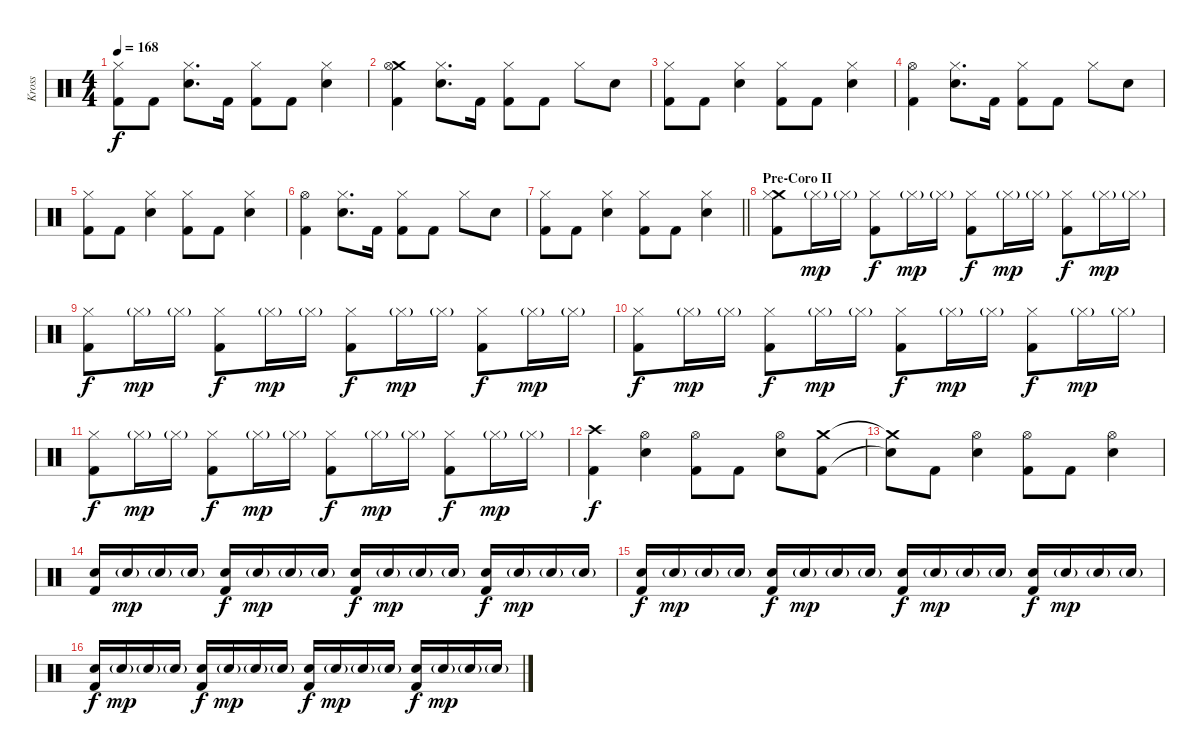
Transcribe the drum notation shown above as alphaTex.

\track ("Kross" "Kross") {instrument percussion}
\staff
\articulation defaults
\ts (4 4)
\tempo 168
\clef neutral
\ks c
("Hi-Hat (closed)" "Kick (hit) 2").8{dy f} "Kick (hit) 2".8 ("Hi-Hat (closed)" "Electric Snare (hit)").8{d} "Kick (hit) 2".16 ("Hi-Hat (closed)" "Kick (hit) 2").8 "Kick (hit) 2".8 ("Hi-Hat (closed)" "Electric Snare (hit)").4 |
("Crash medium (hit)" "Hi-Hat (open)" "Kick (hit) 2").4 ("Hi-Hat (closed)" "Electric Snare (hit)").8{d} "Kick (hit) 2".16 ("Hi-Hat (closed)" "Kick (hit) 2").8 "Kick (hit) 2".8 "Hi-Hat (closed)".8 "Electric Snare (hit)".8 |
("Hi-Hat (closed)" "Kick (hit) 2").8 "Kick (hit) 2".8 ("Hi-Hat (closed)" "Electric Snare (hit)").4 ("Hi-Hat (closed)" "Kick (hit) 2").8 "Kick (hit) 2".8 ("Hi-Hat (closed)" "Electric Snare (hit)").4 |
("Hi-Hat (open)" "Kick (hit) 2").4 ("Hi-Hat (closed)" "Electric Snare (hit)").8{d} "Kick (hit) 2".16 ("Hi-Hat (closed)" "Kick (hit) 2").8 "Kick (hit) 2".8 "Hi-Hat (closed)".8 "Electric Snare (hit)".8 |
("Hi-Hat (closed)" "Kick (hit) 2").8 "Kick (hit) 2".8 ("Hi-Hat (closed)" "Electric Snare (hit)").4 ("Hi-Hat (closed)" "Kick (hit) 2").8 "Kick (hit) 2".8 ("Hi-Hat (closed)" "Electric Snare (hit)").4 |
("Hi-Hat (open)" "Kick (hit) 2").4 ("Hi-Hat (closed)" "Electric Snare (hit)").8{d} "Kick (hit) 2".16 ("Hi-Hat (closed)" "Kick (hit) 2").8 "Kick (hit) 2".8 "Hi-Hat (closed)".8 "Electric Snare (hit)".8 |
\barLineRight lightlight
("Hi-Hat (closed)" "Kick (hit) 2").8 "Kick (hit) 2".8 ("Hi-Hat (closed)" "Electric Snare (hit)").4 ("Hi-Hat (closed)" "Kick (hit) 2").8 "Kick (hit) 2".8 ("Hi-Hat (closed)" "Electric Snare (hit)").4 |
\section ("" "Pre-Coro II")
("Crash medium (hit)" "Hi-Hat (closed)" "Kick (hit) 2").8 "Hi-Hat (closed)"{g}.16{dy mp} "Hi-Hat (closed)"{g}.16 ("Hi-Hat (closed)" "Kick (hit) 2").8{dy f} "Hi-Hat (closed)"{g}.16{dy mp} "Hi-Hat (closed)"{g}.16 ("Hi-Hat (closed)" "Kick (hit) 2").8{dy f} "Hi-Hat (closed)"{g}.16{dy mp} "Hi-Hat (closed)"{g}.16 ("Hi-Hat (closed)" "Kick (hit) 2").8{dy f} "Hi-Hat (closed)"{g}.16{dy mp} "Hi-Hat (closed)"{g}.16 |
("Hi-Hat (closed)" "Kick (hit) 2").8{dy f} "Hi-Hat (closed)"{g}.16{dy mp} "Hi-Hat (closed)"{g}.16 ("Hi-Hat (closed)" "Kick (hit) 2").8{dy f} "Hi-Hat (closed)"{g}.16{dy mp} "Hi-Hat (closed)"{g}.16 ("Hi-Hat (closed)" "Kick (hit) 2").8{dy f} "Hi-Hat (closed)"{g}.16{dy mp} "Hi-Hat (closed)"{g}.16 ("Hi-Hat (closed)" "Kick (hit) 2").8{dy f} "Hi-Hat (closed)"{g}.16{dy mp} "Hi-Hat (closed)"{g}.16 |
("Hi-Hat (closed)" "Kick (hit) 2").8{dy f} "Hi-Hat (closed)"{g}.16{dy mp} "Hi-Hat (closed)"{g}.16 ("Hi-Hat (closed)" "Kick (hit) 2").8{dy f} "Hi-Hat (closed)"{g}.16{dy mp} "Hi-Hat (closed)"{g}.16 ("Hi-Hat (closed)" "Kick (hit) 2").8{dy f} "Hi-Hat (closed)"{g}.16{dy mp} "Hi-Hat (closed)"{g}.16 ("Hi-Hat (closed)" "Kick (hit) 2").8{dy f} "Hi-Hat (closed)"{g}.16{dy mp} "Hi-Hat (closed)"{g}.16 |
("Hi-Hat (closed)" "Kick (hit) 2").8{dy f} "Hi-Hat (closed)"{g}.16{dy mp} "Hi-Hat (closed)"{g}.16 ("Hi-Hat (closed)" "Kick (hit) 2").8{dy f} "Hi-Hat (closed)"{g}.16{dy mp} "Hi-Hat (closed)"{g}.16 ("Hi-Hat (closed)" "Kick (hit) 2").8{dy f} "Hi-Hat (closed)"{g}.16{dy mp} "Hi-Hat (closed)"{g}.16 ("Hi-Hat (closed)" "Kick (hit) 2").8{dy f} "Hi-Hat (closed)"{g}.16{dy mp} "Hi-Hat (closed)"{g}.16 |
("Crash high (hit)" "Kick (hit) 2").4{dy f volume 14} ("Hi-Hat (open)" "Electric Snare (hit)").4 ("Hi-Hat (open)" "Kick (hit) 2").8 "Kick (hit) 2".8 ("Hi-Hat (open)" "Electric Snare (hit)").8 ("Crash medium (hit)" "Kick (hit) 2").8 |
("Crash medium (hit)"{t} "Snare (hit)"{t}).8 "Kick (hit) 2".8 ("Hi-Hat (open)" "Electric Snare (hit)").4 ("Hi-Hat (open)" "Kick (hit) 2").8 "Kick (hit) 2".8 ("Hi-Hat (open)" "Electric Snare (hit)").4 |
("Electric Snare (hit)" "Kick (hit) 2").16 "Electric Snare (hit)"{g}.16{dy mp} "Electric Snare (hit)"{g}.16 "Electric Snare (hit)"{g}.16 ("Electric Snare (hit)" "Kick (hit) 2").16{dy f} "Electric Snare (hit)"{g}.16{dy mp} "Electric Snare (hit)"{g}.16 "Electric Snare (hit)"{g}.16 ("Electric Snare (hit)" "Kick (hit) 2").16{dy f} "Electric Snare (hit)"{g}.16{dy mp} "Electric Snare (hit)"{g}.16 "Electric Snare (hit)"{g}.16 ("Electric Snare (hit)" "Kick (hit) 2").16{dy f} "Electric Snare (hit)"{g}.16{dy mp} "Electric Snare (hit)"{g}.16 "Electric Snare (hit)"{g}.16 |
("Electric Snare (hit)" "Kick (hit) 2").16{dy f} "Electric Snare (hit)"{g}.16{dy mp} "Electric Snare (hit)"{g}.16 "Electric Snare (hit)"{g}.16 ("Electric Snare (hit)" "Kick (hit) 2").16{dy f} "Electric Snare (hit)"{g}.16{dy mp} "Electric Snare (hit)"{g}.16 "Electric Snare (hit)"{g}.16 ("Electric Snare (hit)" "Kick (hit) 2").16{dy f} "Electric Snare (hit)"{g}.16{dy mp} "Electric Snare (hit)"{g}.16 "Electric Snare (hit)"{g}.16 ("Electric Snare (hit)" "Kick (hit) 2").16{dy f} "Electric Snare (hit)"{g}.16{dy mp} "Electric Snare (hit)"{g}.16 "Electric Snare (hit)"{g}.16 |
("Electric Snare (hit)" "Kick (hit) 2").16{dy f} "Electric Snare (hit)"{g}.16{dy mp} "Electric Snare (hit)"{g}.16 "Electric Snare (hit)"{g}.16 ("Electric Snare (hit)" "Kick (hit) 2").16{dy f} "Electric Snare (hit)"{g}.16{dy mp} "Electric Snare (hit)"{g}.16 "Electric Snare (hit)"{g}.16 ("Electric Snare (hit)" "Kick (hit) 2").16{dy f} "Electric Snare (hit)"{g}.16{dy mp} "Electric Snare (hit)"{g}.16 "Electric Snare (hit)"{g}.16 ("Electric Snare (hit)" "Kick (hit) 2").16{dy f} "Electric Snare (hit)"{g}.16{dy mp} "Electric Snare (hit)"{g}.16 "Electric Snare (hit)"{g}.16
